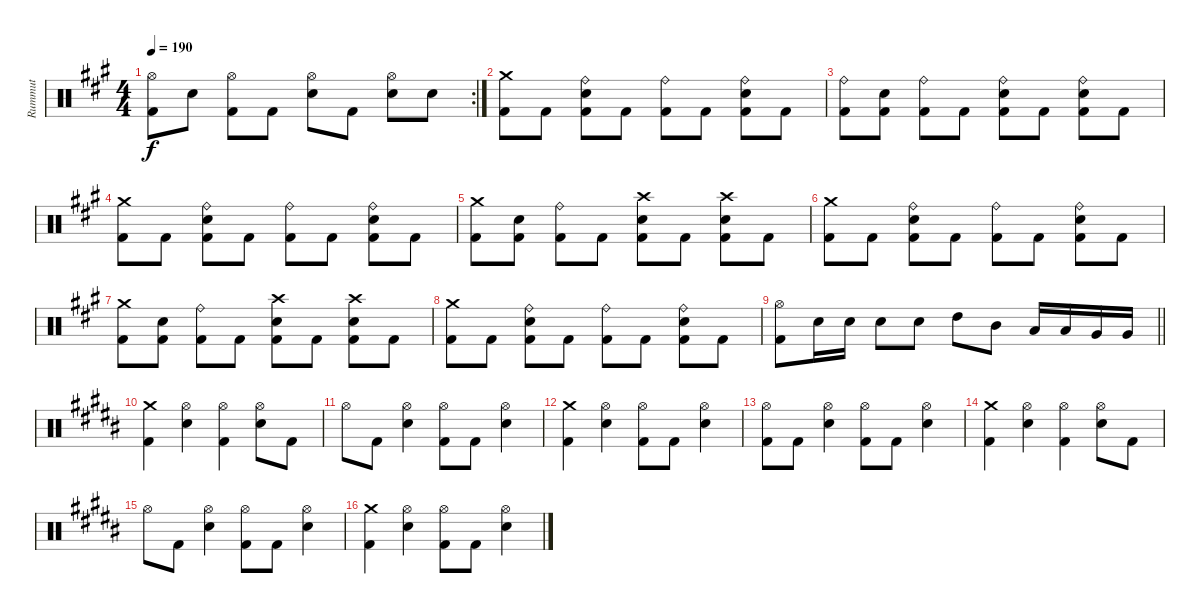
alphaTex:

\track ("Rummut" "Rummut") {instrument percussion}
\staff {score}
\articulation defaults
\rc 2
\ts (4 4)
\tempo 190
\clef neutral
\ks a
("Hi-Hat (open)" "Kick (hit) 2").8{dy f} "Snare (hit) 2".8 ("Hi-Hat (open)" "Kick (hit) 2").8 "Kick (hit) 2".8 ("Hi-Hat (open)" "Snare (hit) 2").8 "Kick (hit) 2".8 ("Hi-Hat (open)" "Snare (hit) 2").8 "Snare (hit) 2".8 |
("Crash medium (hit)" "Kick (hit) 2").8 "Kick (hit) 2".8 ("Ride (bell)" "Snare (hit) 2" "Kick (hit) 2").8 "Kick (hit) 2".8 ("Ride (bell)" "Kick (hit) 2").8 "Kick (hit) 2".8 ("Ride (bell)" "Snare (hit) 2" "Kick (hit) 2").8 "Kick (hit) 2".8 |
("Ride (bell)" "Kick (hit) 2").8 ("Snare (hit) 2" "Kick (hit) 2").8 ("Ride (bell)" "Kick (hit) 2").8 "Kick (hit) 2".8 ("Ride (bell)" "Snare (hit) 2" "Kick (hit) 2").8 "Kick (hit) 2".8 ("Ride (bell)" "Snare (hit) 2" "Kick (hit) 2").8 "Kick (hit) 2".8 |
("Crash medium (hit)" "Kick (hit) 2").8 "Kick (hit) 2".8 ("Ride (bell)" "Snare (hit) 2" "Kick (hit) 2").8 "Kick (hit) 2".8 ("Ride (bell)" "Kick (hit) 2").8 "Kick (hit) 2".8 ("Ride (bell)" "Snare (hit) 2" "Kick (hit) 2").8 "Kick (hit) 2".8 |
("Crash medium (hit)" "Kick (hit) 2").8 ("Snare (hit) 2" "Kick (hit) 2").8 ("Ride (bell)" "Kick (hit) 2").8 "Kick (hit) 2".8 ("Crash high (hit)" "Snare (hit) 2" "Kick (hit) 2").8 "Kick (hit) 2".8 ("Crash high (hit)" "Snare (hit) 2" "Kick (hit) 2").8 "Kick (hit) 2".8 |
("Crash medium (hit)" "Kick (hit) 2").8 "Kick (hit) 2".8 ("Ride (bell)" "Snare (hit) 2" "Kick (hit) 2").8 "Kick (hit) 2".8 ("Ride (bell)" "Kick (hit) 2").8 "Kick (hit) 2".8 ("Ride (bell)" "Snare (hit) 2" "Kick (hit) 2").8 "Kick (hit) 2".8 |
("Crash medium (hit)" "Kick (hit) 2").8 ("Snare (hit) 2" "Kick (hit) 2").8 ("Ride (bell)" "Kick (hit) 2").8 "Kick (hit) 2".8 ("Crash high (hit)" "Snare (hit) 2" "Kick (hit) 2").8 "Kick (hit) 2".8 ("Crash high (hit)" "Snare (hit) 2" "Kick (hit) 2").8 "Kick (hit) 2".8 |
("Crash medium (hit)" "Kick (hit) 2").8 "Kick (hit) 2".8 ("Ride (bell)" "Snare (hit) 2" "Kick (hit) 2").8 "Kick (hit) 2".8 ("Ride (bell)" "Kick (hit) 2").8 "Kick (hit) 2".8 ("Ride (bell)" "Snare (hit) 2" "Kick (hit) 2").8 "Kick (hit) 2".8 |
\barLineRight lightlight
("Hi-Hat (open)" "Kick (hit) 2").8 "Snare (hit) 2".16 "Snare (hit) 2".16 "Snare (hit) 2".8 "Snare (hit) 2".8 "High Tom (hit)".8 "Mid Tom (hit)".8 "Low Tom (hit)".16 "Low Tom (hit)".16 "Very Low Tom (hit)".16 "Very Low Tom (hit)".16 |
\ks b
("Crash medium (hit)" "Kick (hit) 2").4 ("Hi-Hat (open)" "Snare (hit) 2").4 ("Hi-Hat (open)" "Kick (hit) 2").4 ("Hi-Hat (open)" "Snare (hit) 2").8 "Kick (hit) 2".8 |
"Hi-Hat (open)".8 "Kick (hit) 2".8 ("Hi-Hat (open)" "Snare (hit) 2").4 ("Hi-Hat (open)" "Kick (hit) 2").8 "Kick (hit) 2".8 ("Hi-Hat (open)" "Snare (hit) 2").4 |
("Crash medium (hit)" "Kick (hit) 2").4 ("Hi-Hat (open)" "Snare (hit) 2").4 ("Hi-Hat (open)" "Kick (hit) 2").8 "Kick (hit) 2".8 ("Hi-Hat (open)" "Snare (hit) 2").4 |
("Hi-Hat (open)" "Kick (hit) 2").8 "Kick (hit) 2".8 ("Hi-Hat (open)" "Snare (hit) 2").4 ("Hi-Hat (open)" "Kick (hit) 2").8 "Kick (hit) 2".8 ("Hi-Hat (open)" "Snare (hit) 2").4 |
("Crash medium (hit)" "Kick (hit) 2").4 ("Hi-Hat (open)" "Snare (hit) 2").4 ("Hi-Hat (open)" "Kick (hit) 2").4 ("Hi-Hat (open)" "Snare (hit) 2").8 "Kick (hit) 2".8 |
"Hi-Hat (open)".8 "Kick (hit) 2".8 ("Hi-Hat (open)" "Snare (hit) 2").4 ("Hi-Hat (open)" "Kick (hit) 2").8 "Kick (hit) 2".8 ("Hi-Hat (open)" "Snare (hit) 2").4 |
("Crash medium (hit)" "Kick (hit) 2").4 ("Hi-Hat (open)" "Snare (hit) 2").4 ("Hi-Hat (open)" "Kick (hit) 2").8 "Kick (hit) 2".8 ("Hi-Hat (open)" "Snare (hit) 2").4
